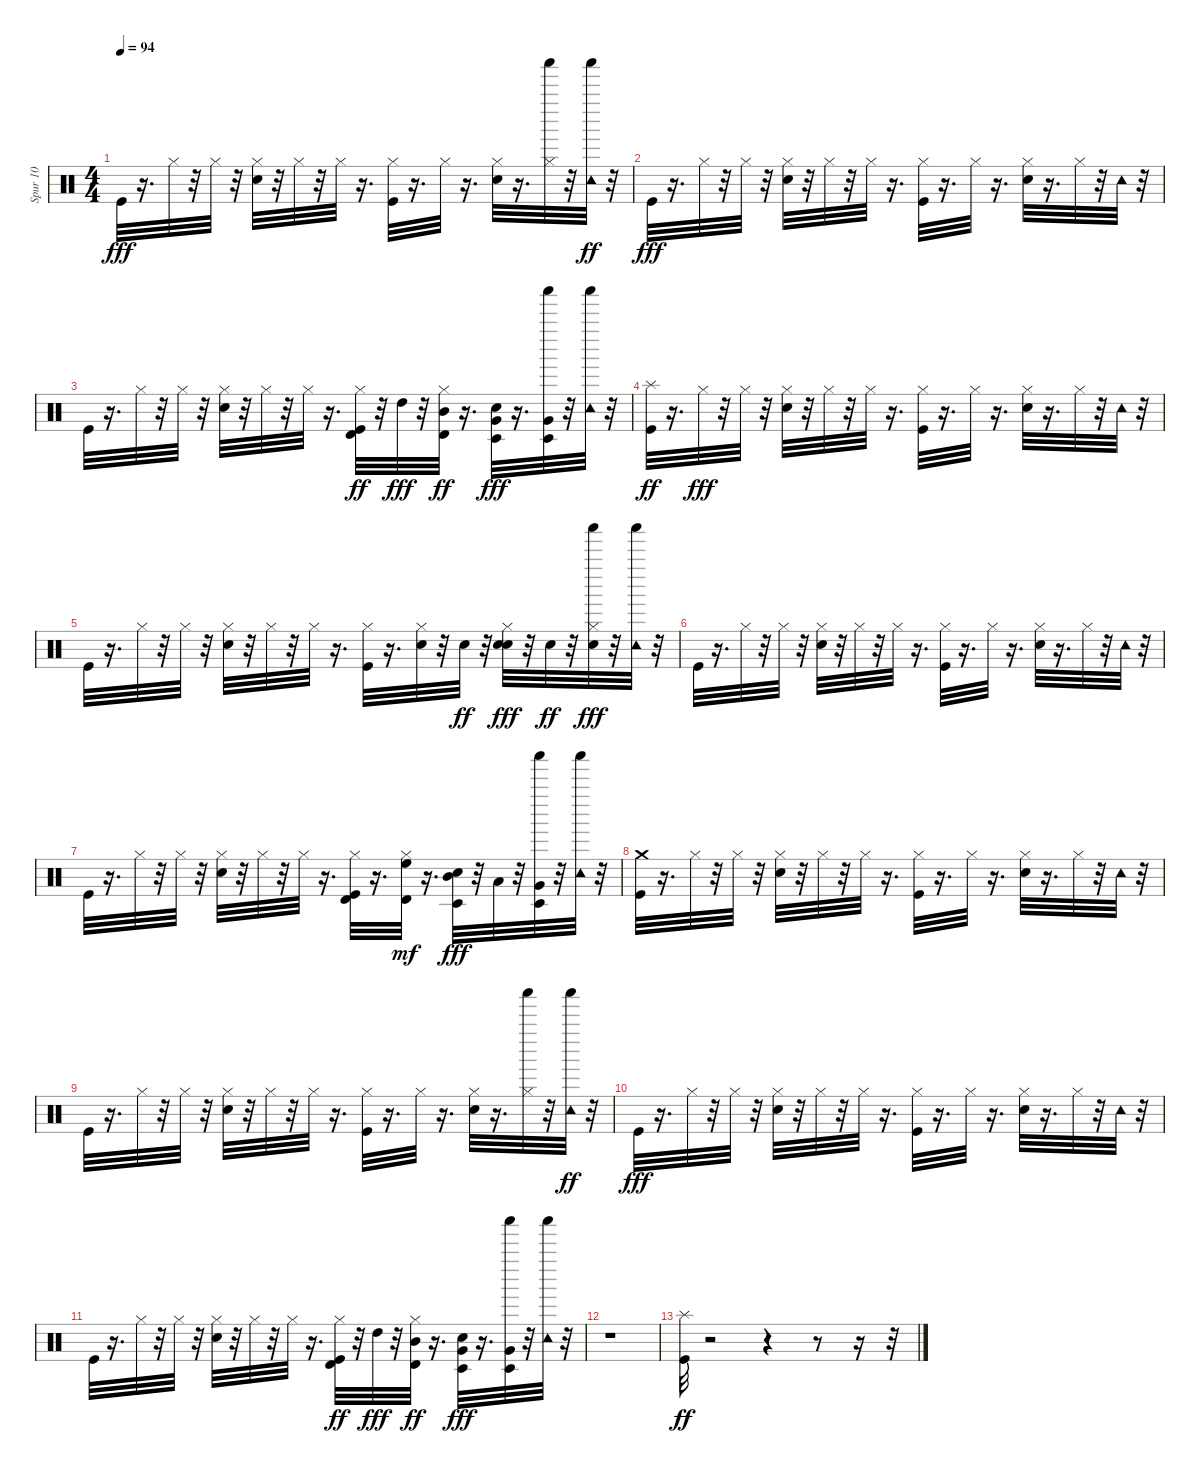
\track ("Spur 10" "Spur 10") {instrument percussion}
\staff {score}
\articulation defaults
\ts (4 4)
\tempo 94
\clef neutral
\ks c "Kick (hit)".32{dy fff}
r.16{d} "Hi-Hat (closed)".32 r.32 "Hi-Hat (closed)".32 r.32 ("Snare (hit) 2" "Hi-Hat (closed)").32 r.32 "Hi-Hat (closed)".32 r.32 "Hi-Hat (closed)".32 r.16{d} ("Kick (hit)" "Hi-Hat (closed)").32 r.16{d} "Hi-Hat (closed)".32 r.16{d} ("Snare (hit) 2" "Hi-Hat (closed)").32 r.16{d} ("Hi-Hat (closed)" "Shaker (hit)").32 r.32 ("Tambourine (hit)" "Shaker (hit)").32{dy ff} r.32 |
"Kick (hit)".32{dy fff} r.16{d} "Hi-Hat (closed)".32 r.32 "Hi-Hat (closed)".32 r.32 ("Snare (hit) 2" "Hi-Hat (closed)").32 r.32 "Hi-Hat (closed)".32 r.32 "Hi-Hat (closed)".32 r.16{d} ("Kick (hit)" "Hi-Hat (closed)").32 r.16{d} "Hi-Hat (closed)".32 r.16{d} ("Snare (hit) 2" "Hi-Hat (closed)").32 r.16{d} "Hi-Hat (closed)".32 r.32 "Tambourine (hit)".32 r.32 |
"Kick (hit)".32 r.16{d} "Hi-Hat (closed)".32 r.32 "Hi-Hat (closed)".32 r.32 ("Snare (hit) 2" "Hi-Hat (closed)").32 r.32 "Hi-Hat (closed)".32 r.32 "Hi-Hat (closed)".32 r.16{d} ("Kick (hit)" "Hi-Hat (closed)" "Timbale high (hit)").32{dy ff} r.32 "High Tom (hit)".32{dy fff} r.32 ("Mid Tom (hit)" "Hi-Hat (closed)" "Timbale high (hit)").32{dy ff} r.16{d} ("Snare (hit) 2" "Timbale low (hit)" "Very Low Tom (hit)").32{dy fff} r.16{d} ("Shaker (hit)" "Timbale low (hit)" "Very Low Tom (hit)").32 r.32 ("Tambourine (hit)" "Shaker (hit)").32 r.32 |
("Kick (hit)" "Splash (hit)").32{dy ff} r.16{d} "Hi-Hat (closed)".32{dy fff} r.32 "Hi-Hat (closed)".32 r.32 ("Snare (hit) 2" "Hi-Hat (closed)").32 r.32 "Hi-Hat (closed)".32 r.32 "Hi-Hat (closed)".32 r.16{d} ("Kick (hit)" "Hi-Hat (closed)").32 r.16{d} "Hi-Hat (closed)".32 r.16{d} ("Snare (hit) 2" "Hi-Hat (closed)").32 r.16{d} "Hi-Hat (closed)".32 r.32 "Tambourine (hit)".32 r.32 |
"Kick (hit)".32 r.16{d} "Hi-Hat (closed)".32 r.32 "Hi-Hat (closed)".32 r.32 ("Snare (hit) 2" "Hi-Hat (closed)").32 r.32 "Hi-Hat (closed)".32 r.32 "Hi-Hat (closed)".32 r.16{d} ("Kick (hit)" "Hi-Hat (closed)").32 r.16{d} ("Hand Clap (hit)" "Hi-Hat (closed)").32 r.32 "Hand Clap (hit)".32{dy ff} r.32 ("Snare (hit) 2" "Hand Clap (hit)" "Hi-Hat (closed)").32{dy fff} r.32 "Hand Clap (hit)".32{dy ff} r.32 ("Hi-Hat (closed)" "Shaker (hit)" "Hand Clap (hit)").32{dy fff} r.32 ("Tambourine (hit)" "Shaker (hit)").32 r.32 |
"Kick (hit)".32 r.16{d} "Hi-Hat (closed)".32 r.32 "Hi-Hat (closed)".32 r.32 ("Snare (hit) 2" "Hi-Hat (closed)").32 r.32 "Hi-Hat (closed)".32 r.32 "Hi-Hat (closed)".32 r.16{d} ("Kick (hit)" "Hi-Hat (closed)").32 r.16{d} "Hi-Hat (closed)".32 r.16{d} ("Snare (hit) 2" "Hi-Hat (closed)").32 r.16{d} "Hi-Hat (closed)".32 r.32 "Tambourine (hit)".32 r.32 |
"Kick (hit)".32 r.16{d} "Hi-Hat (closed)".32 r.32 "Hi-Hat (closed)".32 r.32 ("Snare (hit) 2" "Hi-Hat (closed)").32 r.32 "Hi-Hat (closed)".32 r.32 "Hi-Hat (closed)".32 r.16{d} ("Kick (hit)" "Hi-Hat (closed)" "Timbale high (hit)").32 r.16{d} ("Hi-Hat (closed)" "High Floor Tom (hit)" "Timbale high (hit)").32{dy mf} r.16{d} ("Snare (hit) 2" "Mid Tom (hit)" "Timbale low (hit)").32{dy fff} r.32 "Low Tom (hit)".32 r.32 ("Shaker (hit)" "Very Low Tom (hit)" "Timbale low (hit)").32 r.32 ("Tambourine (hit)" "Shaker (hit)").32 r.32 |
("Kick (hit)" "Crash medium (hit)").32 r.16{d} "Hi-Hat (closed)".32 r.32 "Hi-Hat (closed)".32 r.32 ("Snare (hit) 2" "Hi-Hat (closed)").32 r.32 "Hi-Hat (closed)".32 r.32 "Hi-Hat (closed)".32 r.16{d} ("Kick (hit)" "Hi-Hat (closed)").32 r.16{d} "Hi-Hat (closed)".32 r.16{d} ("Snare (hit) 2" "Hi-Hat (closed)").32 r.16{d} "Hi-Hat (closed)".32 r.32 "Tambourine (hit)".32 r.32 |
"Kick (hit)".32 r.16{d} "Hi-Hat (closed)".32 r.32 "Hi-Hat (closed)".32 r.32 ("Snare (hit) 2" "Hi-Hat (closed)").32 r.32 "Hi-Hat (closed)".32 r.32 "Hi-Hat (closed)".32 r.16{d} ("Kick (hit)" "Hi-Hat (closed)").32 r.16{d} "Hi-Hat (closed)".32 r.16{d} ("Snare (hit) 2" "Hi-Hat (closed)").32 r.16{d} ("Hi-Hat (closed)" "Shaker (hit)").32 r.32 ("Tambourine (hit)" "Shaker (hit)").32{dy ff} r.32 |
"Kick (hit)".32{dy fff} r.16{d} "Hi-Hat (closed)".32 r.32 "Hi-Hat (closed)".32 r.32 ("Snare (hit) 2" "Hi-Hat (closed)").32 r.32 "Hi-Hat (closed)".32 r.32 "Hi-Hat (closed)".32 r.16{d} ("Kick (hit)" "Hi-Hat (closed)").32 r.16{d} "Hi-Hat (closed)".32 r.16{d} ("Snare (hit) 2" "Hi-Hat (closed)").32 r.16{d} "Hi-Hat (closed)".32 r.32 "Tambourine (hit)".32 r.32 |
"Kick (hit)".32 r.16{d} "Hi-Hat (closed)".32 r.32 "Hi-Hat (closed)".32 r.32 ("Snare (hit) 2" "Hi-Hat (closed)").32 r.32 "Hi-Hat (closed)".32 r.32 "Hi-Hat (closed)".32 r.16{d} ("Kick (hit)" "Hi-Hat (closed)" "Timbale high (hit)").32{dy ff} r.32 "High Tom (hit)".32{dy fff} r.32 ("Mid Tom (hit)" "Hi-Hat (closed)" "Timbale high (hit)").32{dy ff} r.16{d} ("Snare (hit) 2" "Timbale low (hit)" "Very Low Tom (hit)").32{dy fff} r.16{d} ("Shaker (hit)" "Timbale low (hit)" "Very Low Tom (hit)").32 r.32 ("Tambourine (hit)" "Shaker (hit)").32 r.32 |
r.1 |
("Kick (hit)" "Splash (hit)").32{dy ff} r.2 r.4 r.8 r.16 r.32
